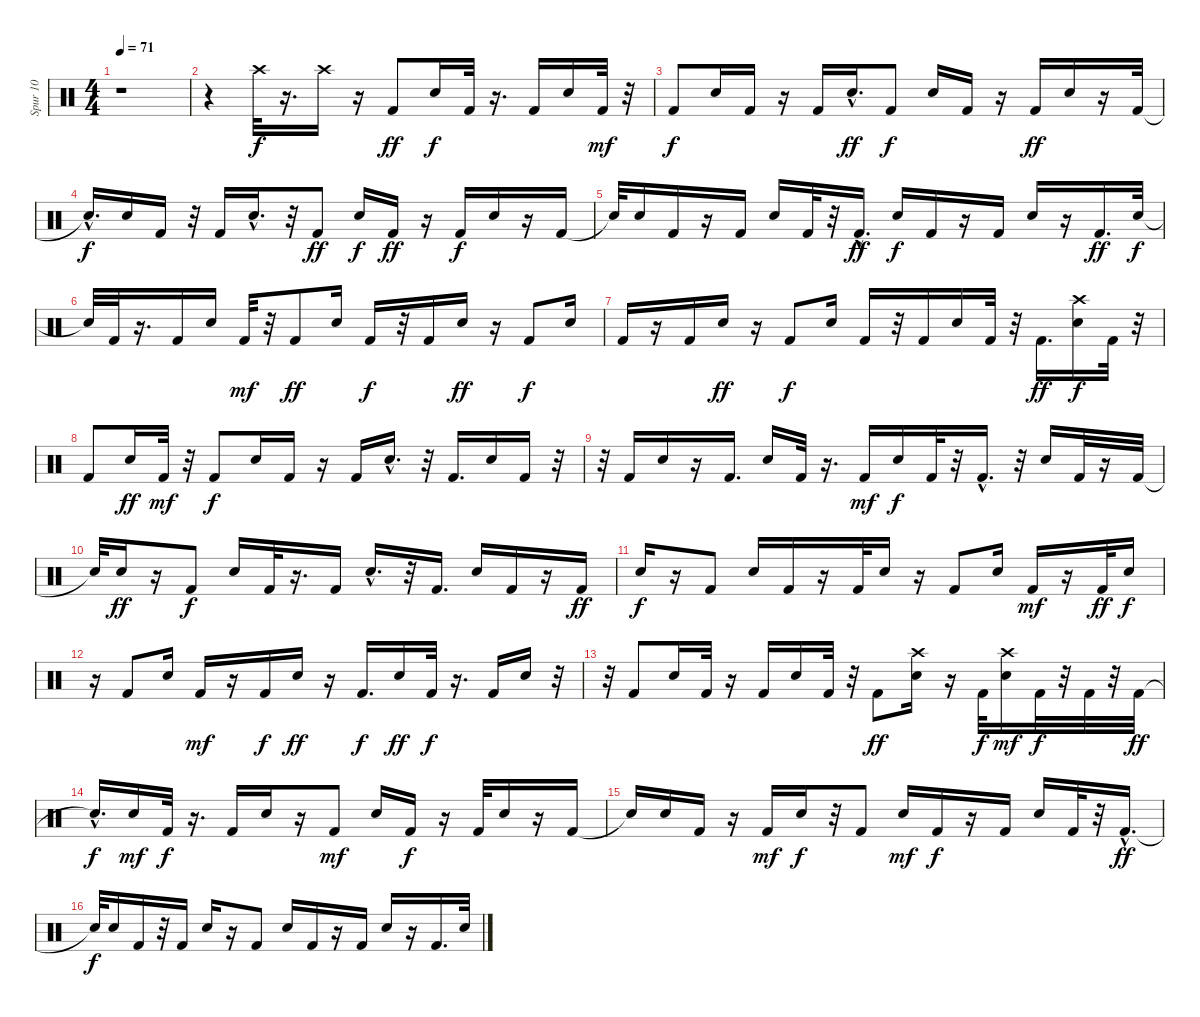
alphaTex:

\track ("Spur 10" "Spur 10") {instrument percussion}
\staff {score}
\articulation defaults
\ts (4 4)
\tempo 71
\clef neutral
\ks c
r.1{dy f} |
r.4 "Crash high (hit)".32 r.16{d} "Crash high (hit)".16 r.16 "Kick (hit) 2".8{dy ff} "Snare (hit) 2".16{dy f} "Kick (hit) 2".32 r.16{d} "Kick (hit) 2".16 "Snare (hit) 2".16 "Kick (hit) 2".32{dy mf} r.32 |
"Kick (hit) 2".8{dy f} "Snare (hit) 2".16 "Kick (hit) 2".16 r.16 "Kick (hit) 2".16 "Snare (hit) 2"{hac}.16{d dy ff} "Kick (hit) 2".8{dy f} "Snare (hit) 2".16 "Kick (hit) 2".16 r.16 "Kick (hit) 2".16{dy ff} "Snare (hit) 2".16 r.16 "Kick (hit) 2".32 |
"Snare (hit)"{hac t}.16{d dy f} "Snare (hit) 2".16 "Kick (hit) 2".16 r.32 "Kick (hit) 2".16 "Snare (hit) 2"{hac}.16{d} r.32 "Kick (hit) 2".8{dy ff} "Snare (hit) 2".16{dy f} "Kick (hit) 2".16{dy ff} r.16 "Kick (hit) 2".16{dy f} "Snare (hit) 2".16 r.16 "Kick (hit) 2".16 |
"Snare (hit)"{t}.32 "Snare (hit) 2".16 "Kick (hit) 2".16 r.16 "Kick (hit) 2".16 "Snare (hit) 2".16 "Kick (hit) 2".32 r.32 "Kick (hit) 2"{hac}.16{d dy ff} "Snare (hit) 2".16{dy f} "Kick (hit) 2".16 r.16 "Kick (hit) 2".16 "Snare (hit) 2".16 r.16 "Kick (hit) 2".16{d dy ff} "Snare (hit) 2".32{dy f} |
"Snare (hit)"{t}.32 "Kick (hit) 2".32 r.16{d} "Kick (hit) 2".16 "Snare (hit) 2".16 "Kick (hit) 2".32{dy mf} r.32 "Kick (hit) 2".8{dy ff} "Snare (hit) 2".16 "Kick (hit) 2".16{dy f} r.32 "Kick (hit) 2".16 "Snare (hit) 2".16{dy ff} r.16 "Kick (hit) 2".8{dy f} "Snare (hit) 2".16 |
"Kick (hit) 2".16 r.16 "Kick (hit) 2".16 "Snare (hit) 2".16{dy ff} r.16 "Kick (hit) 2".8{dy f} "Snare (hit) 2".16 "Kick (hit) 2".16 r.32 "Kick (hit) 2".16 "Snare (hit) 2".16 "Kick (hit) 2".32 r.32 "Kick (hit) 2".16{d dy ff} ("Snare (hit) 2" "Crash high (hit)").16{dy f} "Kick (hit) 2".32 r.32 |
"Kick (hit) 2".8 "Snare (hit) 2".16{dy ff} "Kick (hit) 2".32{dy mf} r.32 "Kick (hit) 2".8{dy f} "Snare (hit) 2".16 "Kick (hit) 2".16 r.16 "Kick (hit) 2".16 "Snare (hit) 2"{hac}.16{d} r.32 "Kick (hit) 2".16{d} "Snare (hit) 2".16 "Kick (hit) 2".16 r.32 |
r.32 "Kick (hit) 2".16 "Snare (hit) 2".16 r.16 "Kick (hit) 2".16{d} "Snare (hit) 2".16 "Kick (hit) 2".32 r.16{d} "Kick (hit) 2".16{dy mf} "Snare (hit) 2".16{dy f} "Kick (hit) 2".32 r.32 "Kick (hit) 2"{hac}.16{d} r.32 "Snare (hit) 2".16 "Kick (hit) 2".32 r.16 "Kick (hit) 2".32 |
"Snare (hit)"{t}.32 "Snare (hit) 2".16{dy ff} r.16 "Kick (hit) 2".8{dy f} "Snare (hit) 2".16 "Kick (hit) 2".32 r.16{d} "Kick (hit) 2".16 "Snare (hit) 2"{hac}.16{d} r.32 "Kick (hit) 2".16{d} "Snare (hit) 2".16 "Kick (hit) 2".16 r.16 "Kick (hit) 2".16{dy ff} |
"Snare (hit) 2".16{dy f} r.16 "Kick (hit) 2".8 "Snare (hit) 2".16 "Kick (hit) 2".16 r.16 "Kick (hit) 2".32 "Snare (hit) 2".16 r.16 "Kick (hit) 2".8 "Snare (hit) 2".16 "Kick (hit) 2".16{dy mf} r.16 "Kick (hit) 2".32{dy ff} "Snare (hit) 2".16{dy f} |
r.16 "Kick (hit) 2".8 "Snare (hit) 2".16 "Kick (hit) 2".16{dy mf} r.16 "Kick (hit) 2".16{dy f} "Snare (hit) 2".16{dy ff} r.16 "Kick (hit) 2".16{d dy f} "Snare (hit) 2".16{dy ff} "Kick (hit) 2".32{dy f} r.16{d} "Kick (hit) 2".16 "Snare (hit) 2".16 r.32 |
r.32 "Kick (hit) 2".8 "Snare (hit) 2".16 "Kick (hit) 2".32 r.16 "Kick (hit) 2".16 "Snare (hit) 2".16 "Kick (hit) 2".32 r.32 "Kick (hit) 2".8{dy ff} ("Snare (hit) 2" "Crash high (hit)").16 r.16 "Kick (hit) 2".32{dy f} ("Crash high (hit)" "Snare (hit) 2").16{dy mf} "Kick (hit) 2".32{dy f} r.32 "Kick (hit) 2".32 r.32 "Kick (hit) 2".32{dy ff} |
"Snare (hit)"{hac t}.16{d dy f} "Snare (hit) 2".16{dy mf} "Kick (hit) 2".32{dy f} r.16{d} "Kick (hit) 2".16 "Snare (hit) 2".16 r.16 "Kick (hit) 2".8{dy mf} "Snare (hit) 2".16 "Kick (hit) 2".16{dy f} r.16 "Kick (hit) 2".32 "Snare (hit) 2".16 r.16 "Kick (hit) 2".16 |
"Snare (hit)"{t}.16 "Snare (hit) 2".16 "Kick (hit) 2".16 r.16 "Kick (hit) 2".16{dy mf} "Snare (hit) 2".16{dy f} r.32 "Kick (hit) 2".8 "Snare (hit) 2".16{dy mf} "Kick (hit) 2".16{dy f} r.16 "Kick (hit) 2".16 "Snare (hit) 2".16 "Kick (hit) 2".32 r.32 "Kick (hit) 2"{hac}.16{d dy ff} |
"Snare (hit)"{t}.32{dy f} "Snare (hit) 2".16 "Kick (hit) 2".16 r.32 "Kick (hit) 2".16 "Snare (hit) 2".16 r.16 "Kick (hit) 2".8 "Snare (hit) 2".16 "Kick (hit) 2".16 r.16 "Kick (hit) 2".16 "Snare (hit) 2".16 r.16 "Kick (hit) 2".16{d} "Snare (hit) 2".32
